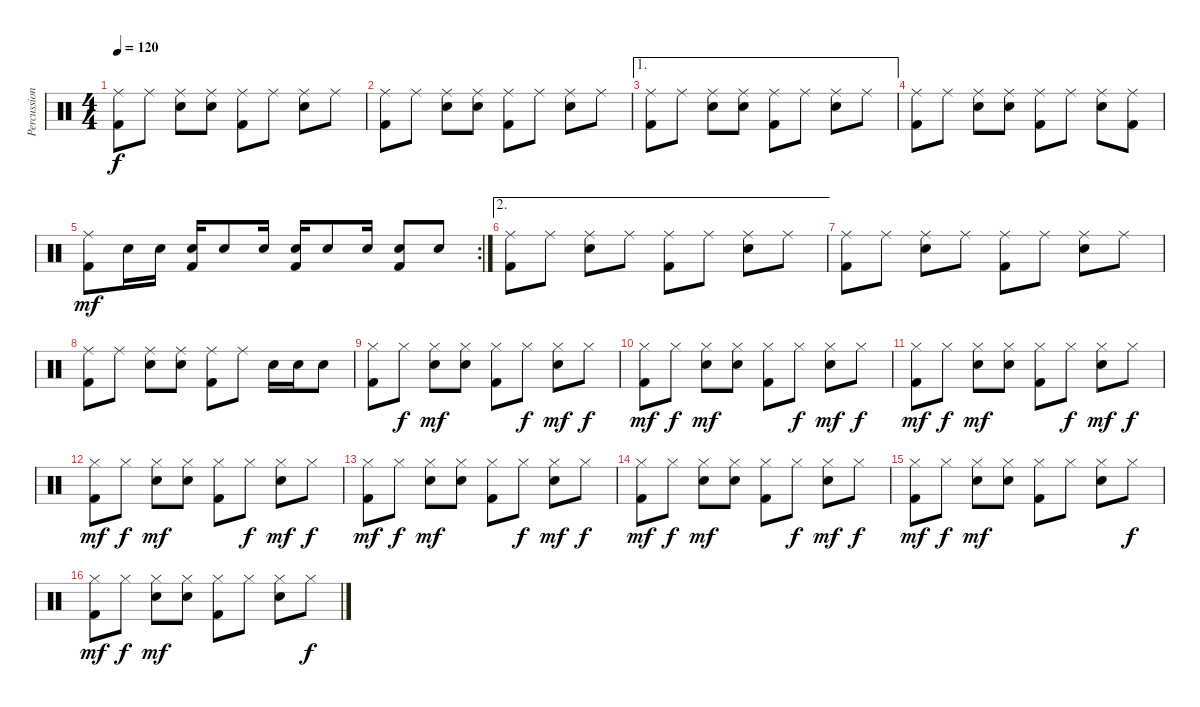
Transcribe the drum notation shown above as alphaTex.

\track ("Percussion" "Percussion") {instrument percussion}
\staff {score}
\articulation defaults
\ts (4 4)
\tempo 120
\clef neutral
\ks c
("Ride (middle)" "Kick (hit) 2").8{dy f} "Ride (middle)".8 ("Ride (middle)" "Snare (hit) 2").8 ("Ride (middle)" "Snare (hit) 2").8 ("Ride (middle)" "Kick (hit) 2").8 "Ride (middle)".8 ("Ride (middle)" "Snare (hit) 2").8 "Ride (middle)".8 |
("Ride (middle)" "Kick (hit) 2").8 "Ride (middle)".8 ("Ride (middle)" "Snare (hit) 2").8 ("Ride (middle)" "Snare (hit) 2").8 ("Ride (middle)" "Kick (hit) 2").8 "Ride (middle)".8 ("Ride (middle)" "Snare (hit) 2").8 "Ride (middle)".8 |
\ae 1
("Ride (middle)" "Kick (hit) 2").8 "Ride (middle)".8 ("Ride (middle)" "Snare (hit) 2").8 ("Ride (middle)" "Snare (hit) 2").8 ("Ride (middle)" "Kick (hit) 2").8 "Ride (middle)".8 ("Ride (middle)" "Snare (hit) 2").8 "Ride (middle)".8 |
("Ride (middle)" "Kick (hit) 2").8 "Ride (middle)".8 ("Ride (middle)" "Snare (hit) 2").8 ("Ride (middle)" "Snare (hit) 2").8 ("Ride (middle)" "Kick (hit) 2").8 "Ride (middle)".8 ("Ride (middle)" "Snare (hit) 2").8 ("Ride (middle)" "Kick (hit) 2").8 |
\rc 2
("Ride (middle)" "Kick (hit) 2").8{dy mf} "Snare (hit) 2".16 "Snare (hit) 2".16 ("Snare (hit) 2" "Kick (hit) 2").16 "Snare (hit) 2".8 "Snare (hit) 2".16 ("Snare (hit) 2" "Kick (hit) 2").16 "Snare (hit) 2".8 "Snare (hit) 2".16 ("Snare (hit) 2" "Kick (hit) 2").8 "Snare (hit) 2".8 |
\ae 2
("Ride (middle)" "Kick (hit) 2").8 "Ride (middle)".8 ("Ride (middle)" "Snare (hit) 2").8 "Ride (middle)".8 ("Ride (middle)" "Kick (hit) 2").8 "Ride (middle)".8 ("Ride (middle)" "Snare (hit) 2").8 "Ride (middle)".8 |
("Ride (middle)" "Kick (hit) 2").8 "Ride (middle)".8 ("Ride (middle)" "Snare (hit) 2").8 "Ride (middle)".8 ("Ride (middle)" "Kick (hit) 2").8 "Ride (middle)".8 ("Ride (middle)" "Snare (hit) 2").8 "Ride (middle)".8 |
("Ride (middle)" "Kick (hit) 2").8 "Ride (middle)".8 ("Ride (middle)" "Snare (hit) 2").8 ("Ride (middle)" "Snare (hit) 2").8 ("Ride (middle)" "Kick (hit) 2").8 "Ride (middle)".8 "Snare (hit) 2".16 "Snare (hit) 2".16 "Snare (hit) 2".8 |
("Hi-Hat (closed)" "Kick (hit) 2").8 "Hi-Hat (closed)".8{dy f} ("Hi-Hat (closed)" "Snare (hit) 2").8{dy mf} ("Hi-Hat (closed)" "Snare (hit) 2").8 ("Hi-Hat (closed)" "Kick (hit) 2").8 "Hi-Hat (closed)".8{dy f} ("Hi-Hat (closed)" "Snare (hit) 2").8{dy mf} "Hi-Hat (closed)".8{dy f} |
("Hi-Hat (closed)" "Kick (hit) 2").8{dy mf} "Hi-Hat (closed)".8{dy f} ("Hi-Hat (closed)" "Snare (hit) 2").8{dy mf} ("Hi-Hat (closed)" "Snare (hit) 2").8 ("Hi-Hat (closed)" "Kick (hit) 2").8 "Hi-Hat (closed)".8{dy f} ("Hi-Hat (closed)" "Snare (hit) 2").8{dy mf} "Hi-Hat (closed)".8{dy f} |
("Hi-Hat (closed)" "Kick (hit) 2").8{dy mf} "Hi-Hat (closed)".8{dy f} ("Hi-Hat (closed)" "Snare (hit) 2").8{dy mf} ("Hi-Hat (closed)" "Snare (hit) 2").8 ("Hi-Hat (closed)" "Kick (hit) 2").8 "Hi-Hat (closed)".8{dy f} ("Hi-Hat (closed)" "Snare (hit) 2").8{dy mf} "Hi-Hat (closed)".8{dy f} |
("Hi-Hat (closed)" "Kick (hit) 2").8{dy mf} "Hi-Hat (closed)".8{dy f} ("Hi-Hat (closed)" "Snare (hit) 2").8{dy mf} ("Hi-Hat (closed)" "Snare (hit) 2").8 ("Hi-Hat (closed)" "Kick (hit) 2").8 "Hi-Hat (closed)".8{dy f} ("Hi-Hat (closed)" "Snare (hit) 2").8{dy mf} "Hi-Hat (closed)".8{dy f} |
("Hi-Hat (closed)" "Kick (hit) 2").8{dy mf} "Hi-Hat (closed)".8{dy f} ("Hi-Hat (closed)" "Snare (hit) 2").8{dy mf} ("Hi-Hat (closed)" "Snare (hit) 2").8 ("Hi-Hat (closed)" "Kick (hit) 2").8 "Hi-Hat (closed)".8{dy f} ("Hi-Hat (closed)" "Snare (hit) 2").8{dy mf} "Hi-Hat (closed)".8{dy f} |
("Hi-Hat (closed)" "Kick (hit) 2").8{dy mf} "Hi-Hat (closed)".8{dy f} ("Hi-Hat (closed)" "Snare (hit) 2").8{dy mf} ("Hi-Hat (closed)" "Snare (hit) 2").8 ("Hi-Hat (closed)" "Kick (hit) 2").8 "Hi-Hat (closed)".8{dy f} ("Hi-Hat (closed)" "Snare (hit) 2").8{dy mf} "Hi-Hat (closed)".8{dy f} |
("Hi-Hat (closed)" "Kick (hit) 2").8{dy mf} "Hi-Hat (closed)".8{dy f} ("Hi-Hat (closed)" "Snare (hit) 2").8{dy mf} ("Hi-Hat (closed)" "Snare (hit) 2").8 ("Hi-Hat (closed)" "Kick (hit) 2").8 "Hi-Hat (closed)".8 ("Hi-Hat (closed)" "Snare (hit) 2").8 "Hi-Hat (closed)".8{dy f} |
("Hi-Hat (closed)" "Kick (hit) 2").8{dy mf} "Hi-Hat (closed)".8{dy f} ("Hi-Hat (closed)" "Snare (hit) 2").8{dy mf} ("Hi-Hat (closed)" "Snare (hit) 2").8 ("Hi-Hat (closed)" "Kick (hit) 2").8 "Hi-Hat (closed)".8 ("Hi-Hat (closed)" "Snare (hit) 2").8 "Hi-Hat (closed)".8{dy f}
